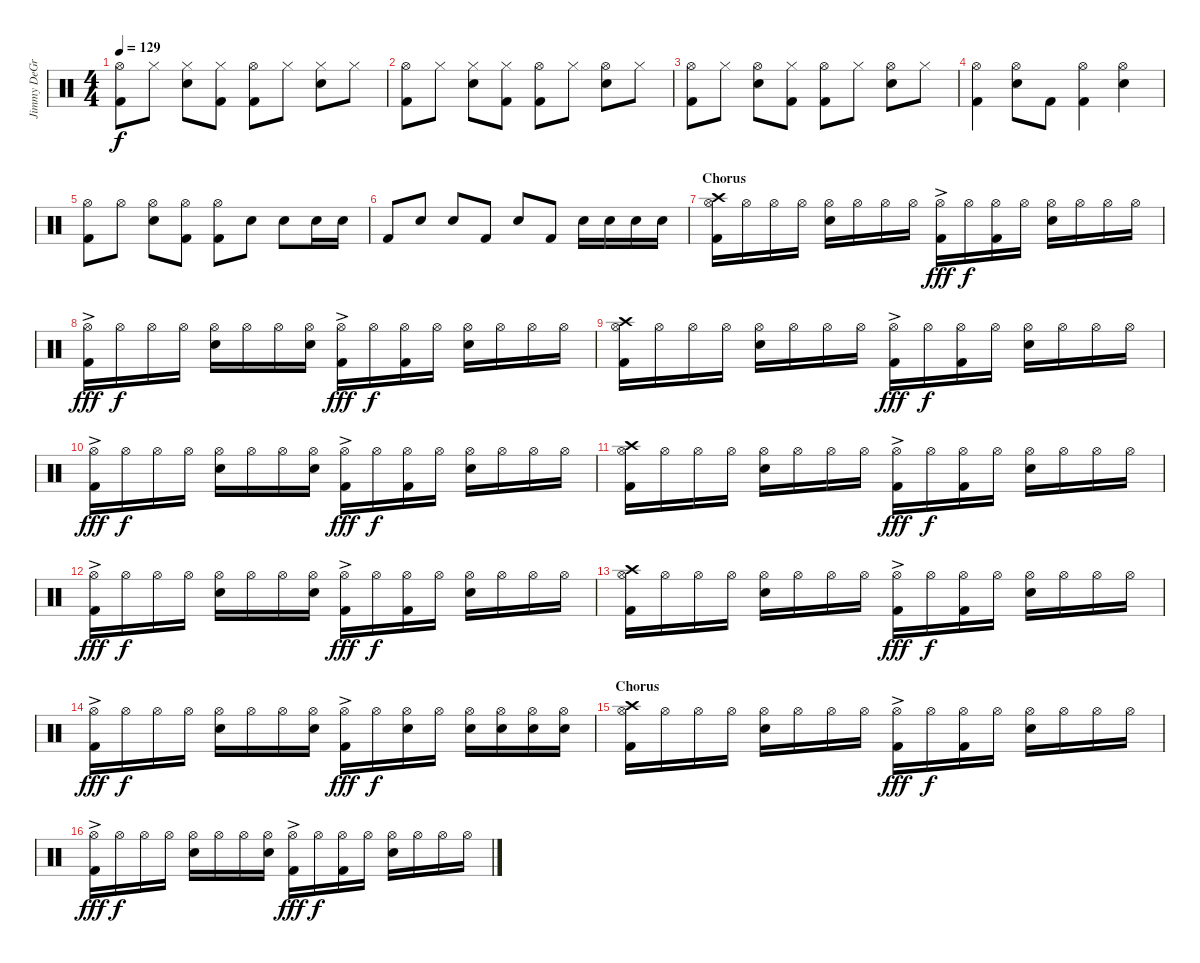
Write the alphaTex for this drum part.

\track ("Jimmy DeGrasso (Drums)" "Jimmy DeGr") {instrument percussion}
\staff {score}
\articulation defaults
\ts (4 4)
\tempo 129
\clef neutral
\ks c
("Hi-Hat (open)" "Kick (hit) 2").8{dy f} "Hi-Hat (closed)".8 ("Hi-Hat (closed)" "Electric Snare (hit)").8 ("Hi-Hat (closed)" "Kick (hit) 2").8 ("Hi-Hat (open)" "Kick (hit) 2").8 "Hi-Hat (closed)".8 ("Hi-Hat (closed)" "Electric Snare (hit)").8 "Hi-Hat (closed)".8 |
("Hi-Hat (open)" "Kick (hit) 2").8 "Hi-Hat (closed)".8 ("Hi-Hat (closed)" "Electric Snare (hit)").8 ("Hi-Hat (closed)" "Kick (hit) 2").8 ("Hi-Hat (open)" "Kick (hit) 2").8 "Hi-Hat (closed)".8 ("Hi-Hat (open)" "Electric Snare (hit)").8 "Hi-Hat (closed)".8 |
("Hi-Hat (open)" "Kick (hit) 2").8 "Hi-Hat (closed)".8 ("Hi-Hat (open)" "Electric Snare (hit)").8 ("Hi-Hat (closed)" "Kick (hit) 2").8 ("Hi-Hat (open)" "Kick (hit) 2").8 "Hi-Hat (closed)".8 ("Hi-Hat (open)" "Electric Snare (hit)").8 "Hi-Hat (closed)".8 |
("Hi-Hat (open)" "Kick (hit) 2").4 ("Hi-Hat (open)" "Electric Snare (hit)").8 "Kick (hit) 2".8 ("Hi-Hat (open)" "Kick (hit) 2").4 ("Hi-Hat (open)" "Electric Snare (hit)").4 |
("Hi-Hat (open)" "Kick (hit) 2").8 "Hi-Hat (open)".8 ("Hi-Hat (open)" "Electric Snare (hit)").8 ("Hi-Hat (open)" "Kick (hit) 2").8 ("Hi-Hat (open)" "Kick (hit) 2").8 "Electric Snare (hit)".8 "Electric Snare (hit)".8 "Electric Snare (hit)".16 "Electric Snare (hit)".16 |
"Kick (hit) 2".8 "Electric Snare (hit)".8 "Electric Snare (hit)".8 "Kick (hit) 2".8 "Electric Snare (hit)".8 "Kick (hit) 2".8 "Electric Snare (hit)".16 "Electric Snare (hit)".16 "Electric Snare (hit)".16 "Electric Snare (hit)".16 |
\section ("" "Chorus")
("Crash high (hit)" "Hi-Hat (open)" "Kick (hit) 2").16 "Hi-Hat (open)".16 "Hi-Hat (open)".16 "Hi-Hat (open)".16 ("Hi-Hat (open)" "Electric Snare (hit)").16 "Hi-Hat (open)".16 "Hi-Hat (open)".16 "Hi-Hat (open)".16 ("Hi-Hat (open)"{ac} "Kick (hit) 2").16{dy fff} "Hi-Hat (open)".16{dy f} ("Hi-Hat (open)" "Kick (hit) 2").16 "Hi-Hat (open)".16 ("Hi-Hat (open)" "Electric Snare (hit)").16 "Hi-Hat (open)".16 "Hi-Hat (open)".16 "Hi-Hat (open)".16 |
("Hi-Hat (open)"{ac} "Kick (hit) 2").16{dy fff} "Hi-Hat (open)".16{dy f} "Hi-Hat (open)".16 "Hi-Hat (open)".16 ("Hi-Hat (open)" "Electric Snare (hit)").16 "Hi-Hat (open)".16 "Hi-Hat (open)".16 ("Hi-Hat (open)" "Electric Snare (hit)").16 ("Hi-Hat (open)"{ac} "Kick (hit) 2").16{dy fff} "Hi-Hat (open)".16{dy f} ("Hi-Hat (open)" "Kick (hit) 2").16 "Hi-Hat (open)".16 ("Hi-Hat (open)" "Electric Snare (hit)").16 "Hi-Hat (open)".16 "Hi-Hat (open)".16 "Hi-Hat (open)".16 |
("Crash high (hit)" "Hi-Hat (open)" "Kick (hit) 2").16 "Hi-Hat (open)".16 "Hi-Hat (open)".16 "Hi-Hat (open)".16 ("Hi-Hat (open)" "Electric Snare (hit)").16 "Hi-Hat (open)".16 "Hi-Hat (open)".16 "Hi-Hat (open)".16 ("Hi-Hat (open)"{ac} "Kick (hit) 2").16{dy fff} "Hi-Hat (open)".16{dy f} ("Hi-Hat (open)" "Kick (hit) 2").16 "Hi-Hat (open)".16 ("Hi-Hat (open)" "Electric Snare (hit)").16 "Hi-Hat (open)".16 "Hi-Hat (open)".16 "Hi-Hat (open)".16 |
("Hi-Hat (open)"{ac} "Kick (hit) 2").16{dy fff} "Hi-Hat (open)".16{dy f} "Hi-Hat (open)".16 "Hi-Hat (open)".16 ("Hi-Hat (open)" "Electric Snare (hit)").16 "Hi-Hat (open)".16 "Hi-Hat (open)".16 ("Hi-Hat (open)" "Electric Snare (hit)").16 ("Hi-Hat (open)"{ac} "Kick (hit) 2").16{dy fff} "Hi-Hat (open)".16{dy f} ("Hi-Hat (open)" "Kick (hit) 2").16 "Hi-Hat (open)".16 ("Hi-Hat (open)" "Electric Snare (hit)").16 "Hi-Hat (open)".16 "Hi-Hat (open)".16 "Hi-Hat (open)".16 |
("Crash high (hit)" "Hi-Hat (open)" "Kick (hit) 2").16 "Hi-Hat (open)".16 "Hi-Hat (open)".16 "Hi-Hat (open)".16 ("Hi-Hat (open)" "Electric Snare (hit)").16 "Hi-Hat (open)".16 "Hi-Hat (open)".16 "Hi-Hat (open)".16 ("Hi-Hat (open)"{ac} "Kick (hit) 2").16{dy fff} "Hi-Hat (open)".16{dy f} ("Hi-Hat (open)" "Kick (hit) 2").16 "Hi-Hat (open)".16 ("Hi-Hat (open)" "Electric Snare (hit)").16 "Hi-Hat (open)".16 "Hi-Hat (open)".16 "Hi-Hat (open)".16 |
("Hi-Hat (open)"{ac} "Kick (hit) 2").16{dy fff} "Hi-Hat (open)".16{dy f} "Hi-Hat (open)".16 "Hi-Hat (open)".16 ("Hi-Hat (open)" "Electric Snare (hit)").16 "Hi-Hat (open)".16 "Hi-Hat (open)".16 ("Hi-Hat (open)" "Electric Snare (hit)").16 ("Hi-Hat (open)"{ac} "Kick (hit) 2").16{dy fff} "Hi-Hat (open)".16{dy f} ("Hi-Hat (open)" "Kick (hit) 2").16 "Hi-Hat (open)".16 ("Hi-Hat (open)" "Electric Snare (hit)").16 "Hi-Hat (open)".16 "Hi-Hat (open)".16 "Hi-Hat (open)".16 |
("Crash high (hit)" "Hi-Hat (open)" "Kick (hit) 2").16 "Hi-Hat (open)".16 "Hi-Hat (open)".16 "Hi-Hat (open)".16 ("Hi-Hat (open)" "Electric Snare (hit)").16 "Hi-Hat (open)".16 "Hi-Hat (open)".16 "Hi-Hat (open)".16 ("Hi-Hat (open)"{ac} "Kick (hit) 2").16{dy fff} "Hi-Hat (open)".16{dy f} ("Hi-Hat (open)" "Kick (hit) 2").16 "Hi-Hat (open)".16 ("Hi-Hat (open)" "Electric Snare (hit)").16 "Hi-Hat (open)".16 "Hi-Hat (open)".16 "Hi-Hat (open)".16 |
("Hi-Hat (open)"{ac} "Kick (hit) 2").16{dy fff} "Hi-Hat (open)".16{dy f} "Hi-Hat (open)".16 "Hi-Hat (open)".16 ("Hi-Hat (open)" "Electric Snare (hit)").16 "Hi-Hat (open)".16 "Hi-Hat (open)".16 ("Hi-Hat (open)" "Electric Snare (hit)").16 ("Hi-Hat (open)"{ac} "Kick (hit) 2").16{dy fff} "Hi-Hat (open)".16{dy f} ("Hi-Hat (open)" "Electric Snare (hit)").16 "Hi-Hat (open)".16 ("Hi-Hat (open)" "Electric Snare (hit)").16 ("Hi-Hat (open)" "Electric Snare (hit)").16 ("Hi-Hat (open)" "Electric Snare (hit)").16 ("Hi-Hat (open)" "Electric Snare (hit)").16 |
\section ("" "Chorus")
("Crash high (hit)" "Hi-Hat (open)" "Kick (hit) 2").16 "Hi-Hat (open)".16 "Hi-Hat (open)".16 "Hi-Hat (open)".16 ("Hi-Hat (open)" "Electric Snare (hit)").16 "Hi-Hat (open)".16 "Hi-Hat (open)".16 "Hi-Hat (open)".16 ("Hi-Hat (open)"{ac} "Kick (hit) 2").16{dy fff} "Hi-Hat (open)".16{dy f} ("Hi-Hat (open)" "Kick (hit) 2").16 "Hi-Hat (open)".16 ("Hi-Hat (open)" "Electric Snare (hit)").16 "Hi-Hat (open)".16 "Hi-Hat (open)".16 "Hi-Hat (open)".16 |
("Hi-Hat (open)"{ac} "Kick (hit) 2").16{dy fff} "Hi-Hat (open)".16{dy f} "Hi-Hat (open)".16 "Hi-Hat (open)".16 ("Hi-Hat (open)" "Electric Snare (hit)").16 "Hi-Hat (open)".16 "Hi-Hat (open)".16 ("Hi-Hat (open)" "Electric Snare (hit)").16 ("Hi-Hat (open)"{ac} "Kick (hit) 2").16{dy fff} "Hi-Hat (open)".16{dy f} ("Hi-Hat (open)" "Kick (hit) 2").16 "Hi-Hat (open)".16 ("Hi-Hat (open)" "Electric Snare (hit)").16 "Hi-Hat (open)".16 "Hi-Hat (open)".16 "Hi-Hat (open)".16
